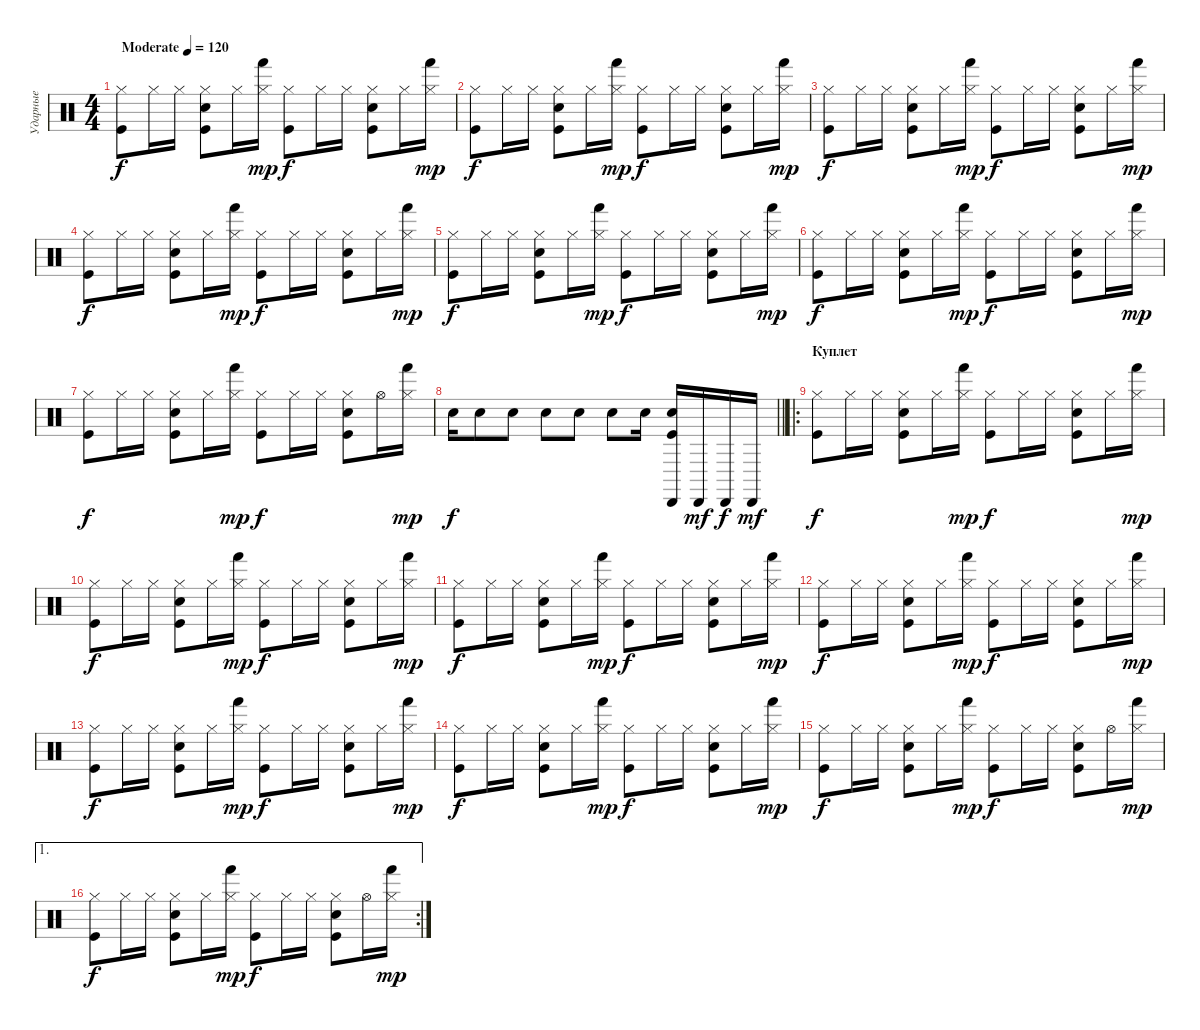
\track ("Ударные" "Ударные") {instrument percussion}
\staff {score}
\articulation defaults
\ts (4 4)
\tempo (120 "Moderate")
\clef neutral
\ks c
("Hi-Hat (closed)" "Kick (hit)").8{dy f} "Hi-Hat (closed)".16 "Hi-Hat (closed)".16 ("Hi-Hat (closed)" "Snare (hit) 2" "Kick (hit)").8 "Hi-Hat (closed)".16 ("Hi-Hat (closed)" "Hand (hit)").16{dy mp} ("Hi-Hat (closed)" "Kick (hit)").8{dy f} "Hi-Hat (closed)".16 "Hi-Hat (closed)".16 ("Hi-Hat (closed)" "Snare (hit) 2" "Kick (hit)").8 "Hi-Hat (closed)".16 ("Hi-Hat (closed)" "Hand (hit)").16{dy mp} |
("Hi-Hat (closed)" "Kick (hit)").8{dy f} "Hi-Hat (closed)".16 "Hi-Hat (closed)".16 ("Hi-Hat (closed)" "Snare (hit) 2" "Kick (hit)").8 "Hi-Hat (closed)".16 ("Hi-Hat (closed)" "Hand (hit)").16{dy mp} ("Hi-Hat (closed)" "Kick (hit)").8{dy f} "Hi-Hat (closed)".16 "Hi-Hat (closed)".16 ("Hi-Hat (closed)" "Snare (hit) 2" "Kick (hit)").8 "Hi-Hat (closed)".16 ("Hi-Hat (closed)" "Hand (hit)").16{dy mp} |
("Hi-Hat (closed)" "Kick (hit)").8{dy f} "Hi-Hat (closed)".16 "Hi-Hat (closed)".16 ("Hi-Hat (closed)" "Snare (hit) 2" "Kick (hit)").8 "Hi-Hat (closed)".16 ("Hi-Hat (closed)" "Hand (hit)").16{dy mp} ("Hi-Hat (closed)" "Kick (hit)").8{dy f} "Hi-Hat (closed)".16 "Hi-Hat (closed)".16 ("Hi-Hat (closed)" "Snare (hit) 2" "Kick (hit)").8 "Hi-Hat (closed)".16 ("Hi-Hat (closed)" "Hand (hit)").16{dy mp} |
("Hi-Hat (closed)" "Kick (hit)").8{dy f} "Hi-Hat (closed)".16 "Hi-Hat (closed)".16 ("Hi-Hat (closed)" "Snare (hit) 2" "Kick (hit)").8 "Hi-Hat (closed)".16 ("Hi-Hat (closed)" "Hand (hit)").16{dy mp} ("Hi-Hat (closed)" "Kick (hit)").8{dy f} "Hi-Hat (closed)".16 "Hi-Hat (closed)".16 ("Hi-Hat (closed)" "Snare (hit) 2" "Kick (hit)").8 "Hi-Hat (closed)".16 ("Hi-Hat (closed)" "Hand (hit)").16{dy mp} |
("Hi-Hat (closed)" "Kick (hit)").8{dy f} "Hi-Hat (closed)".16 "Hi-Hat (closed)".16 ("Hi-Hat (closed)" "Snare (hit) 2" "Kick (hit)").8 "Hi-Hat (closed)".16 ("Hi-Hat (closed)" "Hand (hit)").16{dy mp} ("Hi-Hat (closed)" "Kick (hit)").8{dy f} "Hi-Hat (closed)".16 "Hi-Hat (closed)".16 ("Hi-Hat (closed)" "Snare (hit) 2" "Kick (hit)").8 "Hi-Hat (closed)".16 ("Hi-Hat (closed)" "Hand (hit)").16{dy mp} |
("Hi-Hat (closed)" "Kick (hit)").8{dy f} "Hi-Hat (closed)".16 "Hi-Hat (closed)".16 ("Hi-Hat (closed)" "Snare (hit) 2" "Kick (hit)").8 "Hi-Hat (closed)".16 ("Hi-Hat (closed)" "Hand (hit)").16{dy mp} ("Hi-Hat (closed)" "Kick (hit)").8{dy f} "Hi-Hat (closed)".16 "Hi-Hat (closed)".16 ("Hi-Hat (closed)" "Snare (hit) 2" "Kick (hit)").8 "Hi-Hat (closed)".16 ("Hi-Hat (closed)" "Hand (hit)").16{dy mp} |
("Hi-Hat (closed)" "Kick (hit)").8{dy f} "Hi-Hat (closed)".16 "Hi-Hat (closed)".16 ("Hi-Hat (closed)" "Snare (hit) 2" "Kick (hit)").8 "Hi-Hat (closed)".16 ("Hi-Hat (closed)" "Hand (hit)").16{dy mp} ("Hi-Hat (closed)" "Kick (hit)").8{dy f} "Hi-Hat (closed)".16 "Hi-Hat (closed)".16 ("Hi-Hat (closed)" "Snare (hit) 2" "Kick (hit)").8 "Hi-Hat (open)".16 ("Hi-Hat (closed)" "Hand (hit)").16{dy mp} |
\barLineRight lightlight "Snare (hit) 2".16{dy f} "Snare (hit) 2".8 "Snare (hit) 2".8 "Snare (hit) 2".8 "Snare (hit) 2".8 "Snare (hit) 2".8 "Snare (hit) 2".16
("Cabasa (hit)" "Snare (hit) 2" "Kick (hit)").16 "Cabasa (hit)".16{dy mf} "Cabasa (hit)".16{dy f} "Cabasa (hit)".16{dy mf} |
\ro
\section ("" "Куплет")
("Hi-Hat (closed)" "Kick (hit)").8{dy f} "Hi-Hat (closed)".16 "Hi-Hat (closed)".16 ("Hi-Hat (closed)" "Snare (hit) 2" "Kick (hit)").8 "Hi-Hat (closed)".16 ("Hi-Hat (closed)" "Hand (hit)").16{dy mp} ("Hi-Hat (closed)" "Kick (hit)").8{dy f} "Hi-Hat (closed)".16 "Hi-Hat (closed)".16 ("Hi-Hat (closed)" "Snare (hit) 2" "Kick (hit)").8 "Hi-Hat (closed)".16 ("Hi-Hat (closed)" "Hand (hit)").16{dy mp} |
("Hi-Hat (closed)" "Kick (hit)").8{dy f} "Hi-Hat (closed)".16 "Hi-Hat (closed)".16 ("Hi-Hat (closed)" "Snare (hit) 2" "Kick (hit)").8 "Hi-Hat (closed)".16 ("Hi-Hat (closed)" "Hand (hit)").16{dy mp} ("Hi-Hat (closed)" "Kick (hit)").8{dy f} "Hi-Hat (closed)".16 "Hi-Hat (closed)".16 ("Hi-Hat (closed)" "Snare (hit) 2" "Kick (hit)").8 "Hi-Hat (closed)".16 ("Hi-Hat (closed)" "Hand (hit)").16{dy mp} |
("Hi-Hat (closed)" "Kick (hit)").8{dy f} "Hi-Hat (closed)".16 "Hi-Hat (closed)".16 ("Hi-Hat (closed)" "Snare (hit) 2" "Kick (hit)").8 "Hi-Hat (closed)".16 ("Hi-Hat (closed)" "Hand (hit)").16{dy mp} ("Hi-Hat (closed)" "Kick (hit)").8{dy f} "Hi-Hat (closed)".16 "Hi-Hat (closed)".16 ("Hi-Hat (closed)" "Snare (hit) 2" "Kick (hit)").8 "Hi-Hat (closed)".16 ("Hi-Hat (closed)" "Hand (hit)").16{dy mp} |
("Hi-Hat (closed)" "Kick (hit)").8{dy f} "Hi-Hat (closed)".16 "Hi-Hat (closed)".16 ("Hi-Hat (closed)" "Snare (hit) 2" "Kick (hit)").8 "Hi-Hat (closed)".16 ("Hi-Hat (closed)" "Hand (hit)").16{dy mp} ("Hi-Hat (closed)" "Kick (hit)").8{dy f} "Hi-Hat (closed)".16 "Hi-Hat (closed)".16 ("Hi-Hat (closed)" "Snare (hit) 2" "Kick (hit)").8 "Hi-Hat (closed)".16 ("Hi-Hat (closed)" "Hand (hit)").16{dy mp} |
("Hi-Hat (closed)" "Kick (hit)").8{dy f} "Hi-Hat (closed)".16 "Hi-Hat (closed)".16 ("Hi-Hat (closed)" "Snare (hit) 2" "Kick (hit)").8 "Hi-Hat (closed)".16 ("Hi-Hat (closed)" "Hand (hit)").16{dy mp} ("Hi-Hat (closed)" "Kick (hit)").8{dy f} "Hi-Hat (closed)".16 "Hi-Hat (closed)".16 ("Hi-Hat (closed)" "Snare (hit) 2" "Kick (hit)").8 "Hi-Hat (closed)".16 ("Hi-Hat (closed)" "Hand (hit)").16{dy mp} |
("Hi-Hat (closed)" "Kick (hit)").8{dy f} "Hi-Hat (closed)".16 "Hi-Hat (closed)".16 ("Hi-Hat (closed)" "Snare (hit) 2" "Kick (hit)").8 "Hi-Hat (closed)".16 ("Hi-Hat (closed)" "Hand (hit)").16{dy mp} ("Hi-Hat (closed)" "Kick (hit)").8{dy f} "Hi-Hat (closed)".16 "Hi-Hat (closed)".16 ("Hi-Hat (closed)" "Snare (hit) 2" "Kick (hit)").8 "Hi-Hat (closed)".16 ("Hi-Hat (closed)" "Hand (hit)").16{dy mp} |
("Hi-Hat (closed)" "Kick (hit)").8{dy f} "Hi-Hat (closed)".16 "Hi-Hat (closed)".16 ("Hi-Hat (closed)" "Snare (hit) 2" "Kick (hit)").8 "Hi-Hat (closed)".16 ("Hi-Hat (closed)" "Hand (hit)").16{dy mp} ("Hi-Hat (closed)" "Kick (hit)").8{dy f} "Hi-Hat (closed)".16 "Hi-Hat (closed)".16 ("Hi-Hat (closed)" "Snare (hit) 2" "Kick (hit)").8 "Hi-Hat (open)".16 ("Hi-Hat (closed)" "Hand (hit)").16{dy mp} |
\ae 1
\rc 2
("Hi-Hat (closed)" "Kick (hit)").8{dy f} "Hi-Hat (closed)".16 "Hi-Hat (closed)".16 ("Hi-Hat (closed)" "Snare (hit) 2" "Kick (hit)").8 "Hi-Hat (closed)".16 ("Hi-Hat (closed)" "Hand (hit)").16{dy mp} ("Hi-Hat (closed)" "Kick (hit)").8{dy f} "Hi-Hat (closed)".16 "Hi-Hat (closed)".16 ("Hi-Hat (closed)" "Snare (hit) 2" "Kick (hit)").8 "Hi-Hat (open)".16 ("Hi-Hat (closed)" "Hand (hit)").16{dy mp}
